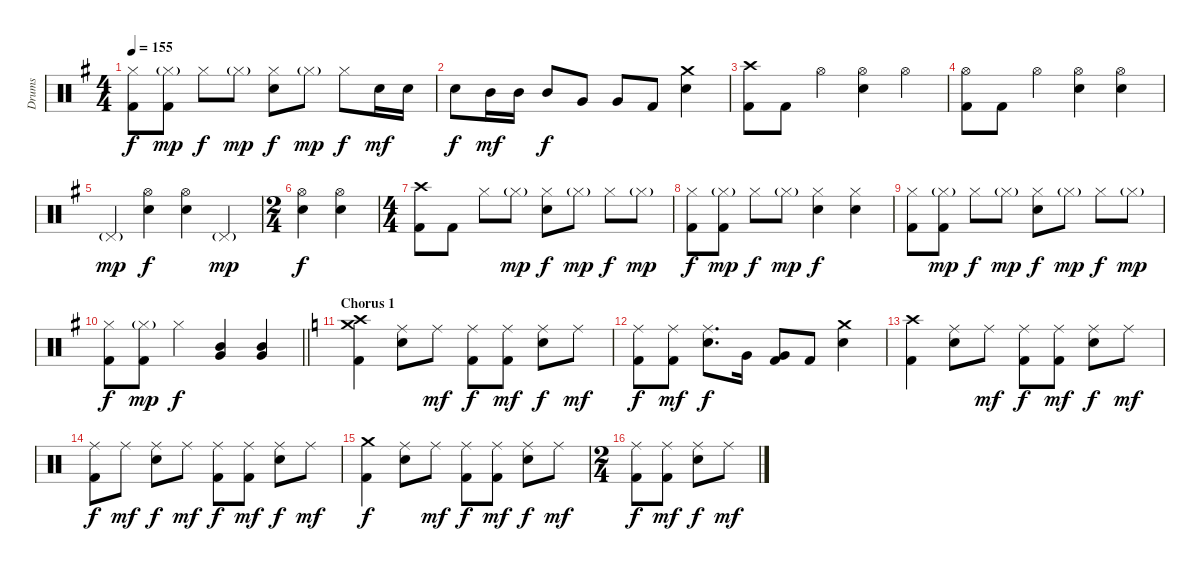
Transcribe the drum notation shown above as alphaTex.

\track ("Drums" "Drums") {instrument percussion}
\staff {score}
\articulation defaults
\ts (4 4)
\tempo 155
\clef neutral
\ks eminor
("Hi-Hat (closed)" "Kick (hit) 2").8{dy f} ("Hi-Hat (closed)"{g} "Kick (hit) 2").8{dy mp} "Hi-Hat (closed)".8{dy f} "Hi-Hat (closed)"{g}.8{dy mp} ("Hi-Hat (closed)" "Electric Snare (hit)").8{dy f} "Hi-Hat (closed)"{g}.8{dy mp} "Hi-Hat (closed)".8{dy f} "Electric Snare (hit)".16{dy mf} "Electric Snare (hit)".16 |
"Electric Snare (hit)".8{dy f} "Mid Tom (hit)".16{dy mf} "Mid Tom (hit)".16 "Mid Tom (hit)".8{dy f} "Very Low Tom (hit)".8 "Very Low Tom (hit)".8 "Kick (hit) 2".8 ("Crash medium (hit)" "Electric Snare (hit)").4 |
("Crash high (hit)" "Kick (hit) 2").8 "Kick (hit) 2".8 "Hi-Hat (open)".4 ("Hi-Hat (open)" "Electric Snare (hit)").4 "Hi-Hat (open)".4 |
("Hi-Hat (open)" "Kick (hit) 2").8 "Kick (hit) 2".8 "Hi-Hat (open)".4 ("Hi-Hat (open)" "Electric Snare (hit)").4 ("Hi-Hat (open)" "Electric Snare (hit)").4 |
"Pedal Hi-Hat (hit)"{g}.4{dy mp} ("Hi-Hat (open)" "Electric Snare (hit)").4{dy f} ("Hi-Hat (open)" "Electric Snare (hit)").4 "Pedal Hi-Hat (hit)"{g}.4{dy mp} |
\ts (2 4)
("Hi-Hat (open)" "Electric Snare (hit)").4{dy f} ("Hi-Hat (open)" "Electric Snare (hit)").4 |
\ts (4 4)
("Crash high (hit)" "Kick (hit) 2").8 "Kick (hit) 2".8 "Hi-Hat (closed)".8 "Hi-Hat (closed)"{g}.8{dy mp} ("Hi-Hat (closed)" "Electric Snare (hit)").8{dy f} "Hi-Hat (closed)"{g}.8{dy mp} "Hi-Hat (closed)".8{dy f} "Hi-Hat (closed)"{g}.8{dy mp} |
("Hi-Hat (closed)" "Kick (hit) 2").8{dy f} ("Hi-Hat (closed)"{g} "Kick (hit) 2").8{dy mp} "Hi-Hat (closed)".8{dy f} "Hi-Hat (closed)"{g}.8{dy mp} ("Hi-Hat (closed)" "Electric Snare (hit)").4{dy f} ("Hi-Hat (closed)" "Electric Snare (hit)").4 |
("Hi-Hat (closed)" "Kick (hit) 2").8 ("Hi-Hat (closed)"{g} "Kick (hit) 2").8{dy mp} "Hi-Hat (closed)".8{dy f} "Hi-Hat (closed)"{g}.8{dy mp} ("Hi-Hat (closed)" "Electric Snare (hit)").8{dy f} "Hi-Hat (closed)"{g}.8{dy mp} "Hi-Hat (closed)".8{dy f} "Hi-Hat (closed)"{g}.8{dy mp} |
\barLineRight lightlight
("Hi-Hat (closed)" "Kick (hit) 2").8{dy f} ("Hi-Hat (closed)"{g} "Kick (hit) 2").8{dy mp} "Hi-Hat (closed)".4{dy f} ("Mid Tom (hit)" "Very Low Tom (hit)").4 ("Mid Tom (hit)" "Very Low Tom (hit)").4 |
\section ("" "Chorus 1")
\ks aminor
("Crash high (hit)" "Crash medium (hit)" "Kick (hit) 2").4 ("Ride (middle)" "Electric Snare (hit)").8 "Ride (middle)".8{dy mf} ("Ride (middle)" "Kick (hit) 2").8{dy f} ("Ride (middle)" "Kick (hit) 2").8{dy mf} ("Ride (middle)" "Electric Snare (hit)").8{dy f} "Ride (middle)".8{dy mf} |
("Ride (middle)" "Kick (hit) 2").8{dy f} ("Ride (middle)" "Kick (hit) 2").8{dy mf} ("Ride (middle)" "Electric Snare (hit)").8{d dy f} "Very Low Tom (hit)".16 ("Very Low Tom (hit)" "Kick (hit) 2").8 "Kick (hit) 2".8 ("Crash medium (hit)" "Electric Snare (hit)").4 |
("Crash high (hit)" "Kick (hit) 2").4 ("Ride (middle)" "Electric Snare (hit)").8 "Ride (middle)".8{dy mf} ("Ride (middle)" "Kick (hit) 2").8{dy f} ("Ride (middle)" "Kick (hit) 2").8{dy mf} ("Ride (middle)" "Electric Snare (hit)").8{dy f} "Ride (middle)".8{dy mf} |
("Ride (middle)" "Kick (hit) 2").8{dy f} "Ride (middle)".8{dy mf} ("Ride (middle)" "Electric Snare (hit)").8{dy f} "Ride (middle)".8{dy mf} ("Ride (middle)" "Kick (hit) 2").8{dy f} ("Ride (middle)" "Kick (hit) 2").8{dy mf} ("Ride (middle)" "Electric Snare (hit)").8{dy f} "Ride (middle)".8{dy mf} |
("Crash medium (hit)" "Kick (hit) 2").4{dy f} ("Ride (middle)" "Electric Snare (hit)").8 "Ride (middle)".8{dy mf} ("Ride (middle)" "Kick (hit) 2").8{dy f} ("Ride (middle)" "Kick (hit) 2").8{dy mf} ("Ride (middle)" "Electric Snare (hit)").8{dy f} "Ride (middle)".8{dy mf} |
\ts (2 4)
("Ride (middle)" "Kick (hit) 2").8{dy f} ("Ride (middle)" "Kick (hit) 2").8{dy mf} ("Ride (middle)" "Electric Snare (hit)").8{dy f} "Ride (middle)".8{dy mf}
